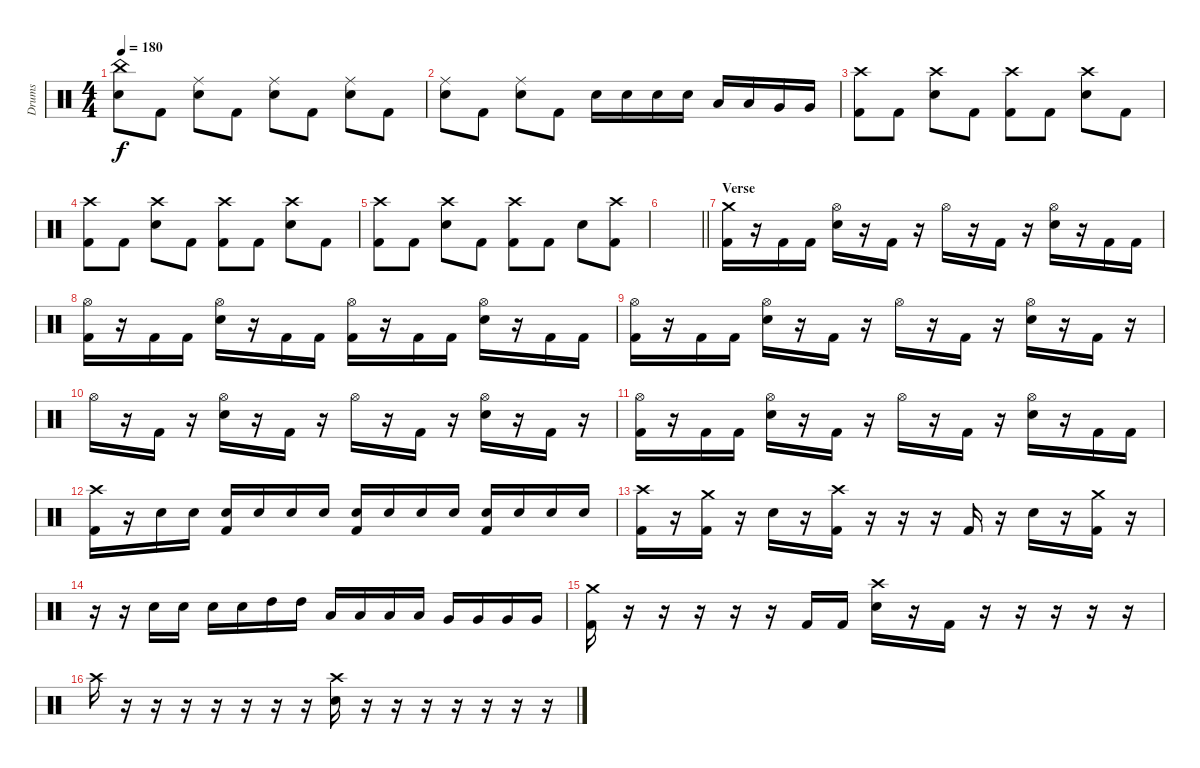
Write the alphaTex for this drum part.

\track ("Drums" "Drums") {instrument percussion}
\staff {score}
\articulation defaults
\ts (4 4)
\tempo 180
\clef neutral
\ks c
("China (hit)" "Electric Snare (hit)").8{dy f} "Kick (hit) 2".8 ("Ride (middle)" "Electric Snare (hit)").8 "Kick (hit) 2".8 ("Ride (middle)" "Electric Snare (hit)").8 "Kick (hit) 2".8 ("Ride (middle)" "Electric Snare (hit)").8 "Kick (hit) 2".8 |
("Ride (middle)" "Electric Snare (hit)").8 "Kick (hit) 2".8 ("Ride (middle)" "Electric Snare (hit)").8 "Kick (hit) 2".8 "Electric Snare (hit)".16 "Electric Snare (hit)".16 "Electric Snare (hit)".16 "Electric Snare (hit)".16 "Low Tom (hit)".16 "Low Tom (hit)".16 "Very Low Tom (hit)".16 "Very Low Tom (hit)".16 |
("Kick (hit) 2" "Crash high (hit)").8 "Kick (hit) 2".8 ("Electric Snare (hit)" "Crash high (hit)").8 "Kick (hit) 2".8 ("Kick (hit) 2" "Crash high (hit)").8 "Kick (hit) 2".8 ("Electric Snare (hit)" "Crash high (hit)").8 "Kick (hit) 2".8 |
("Kick (hit) 2" "Crash high (hit)").8 "Kick (hit) 2".8 ("Electric Snare (hit)" "Crash high (hit)").8 "Kick (hit) 2".8 ("Kick (hit) 2" "Crash high (hit)").8 "Kick (hit) 2".8 ("Electric Snare (hit)" "Crash high (hit)").8 "Kick (hit) 2".8 |
("Kick (hit) 2" "Crash high (hit)").8 "Kick (hit) 2".8 ("Electric Snare (hit)" "Crash high (hit)").8 "Kick (hit) 2".8 ("Kick (hit) 2" "Crash high (hit)").8 "Kick (hit) 2".8 "Electric Snare (hit)".8 ("Kick (hit) 2" "Crash high (hit)").8 |
\barLineRight lightlight
|
\section ("" "Verse")
("Crash medium (hit)" "Kick (hit) 2").16 r.16 "Kick (hit) 2".16 "Kick (hit) 2".16 ("Hi-Hat (open)" "Electric Snare (hit)").16 r.16 "Kick (hit) 2".16 r.16 "Hi-Hat (open)".16 r.16 "Kick (hit) 2".16 r.16 ("Hi-Hat (open)" "Electric Snare (hit)").16 r.16 "Kick (hit) 2".16 "Kick (hit) 2".16 |
("Hi-Hat (open)" "Kick (hit) 2").16 r.16 "Kick (hit) 2".16 "Kick (hit) 2".16 ("Hi-Hat (open)" "Electric Snare (hit)").16 r.16 "Kick (hit) 2".16 "Kick (hit) 2".16 ("Hi-Hat (open)" "Kick (hit) 2").16 r.16 "Kick (hit) 2".16 "Kick (hit) 2".16 ("Hi-Hat (open)" "Electric Snare (hit)").16 r.16 "Kick (hit) 2".16 "Kick (hit) 2".16 |
("Hi-Hat (open)" "Kick (hit) 2").16 r.16 "Kick (hit) 2".16 "Kick (hit) 2".16 ("Hi-Hat (open)" "Electric Snare (hit)").16 r.16 "Kick (hit) 2".16 r.16 "Hi-Hat (open)".16 r.16 "Kick (hit) 2".16 r.16 ("Hi-Hat (open)" "Electric Snare (hit)").16 r.16 "Kick (hit) 2".16 r.16 |
"Hi-Hat (open)".16 r.16 "Kick (hit) 2".16 r.16 ("Hi-Hat (open)" "Electric Snare (hit)").16 r.16 "Kick (hit) 2".16 r.16 "Hi-Hat (open)".16 r.16 "Kick (hit) 2".16 r.16 ("Hi-Hat (open)" "Electric Snare (hit)").16 r.16 "Kick (hit) 2".16 r.16 |
("Hi-Hat (open)" "Kick (hit) 2").16 r.16 "Kick (hit) 2".16 "Kick (hit) 2".16 ("Hi-Hat (open)" "Electric Snare (hit)").16 r.16 "Kick (hit) 2".16 r.16 "Hi-Hat (open)".16 r.16 "Kick (hit) 2".16 r.16 ("Hi-Hat (open)" "Electric Snare (hit)").16 r.16 "Kick (hit) 2".16 "Kick (hit) 2".16 |
("Crash high (hit)" "Kick (hit) 2").16 r.16 "Electric Snare (hit)".16 "Electric Snare (hit)".16 ("Electric Snare (hit)" "Kick (hit) 2").16 "Electric Snare (hit)".16 "Electric Snare (hit)".16 "Electric Snare (hit)".16 ("Electric Snare (hit)" "Kick (hit) 2").16 "Electric Snare (hit)".16 "Electric Snare (hit)".16 "Electric Snare (hit)".16 ("Electric Snare (hit)" "Kick (hit) 2").16 "Electric Snare (hit)".16 "Electric Snare (hit)".16 "Electric Snare (hit)".16 |
("Crash high (hit)" "Kick (hit) 2").16 r.16 ("Crash medium (hit)" "Kick (hit) 2").16 r.16 "Electric Snare (hit)".16 r.16 ("Crash high (hit)" "Kick (hit) 2").16 r.16 r.16 r.16 "Kick (hit) 2".16 r.16 "Electric Snare (hit)".16 r.16 ("Crash medium (hit)" "Kick (hit) 2").16 r.16 |
r.16 r.16 "Electric Snare (hit)".16 "Electric Snare (hit)".16 "Electric Snare (hit)".16 "Electric Snare (hit)".16 "High Tom (hit)".16 "High Tom (hit)".16 "Low Tom (hit)".16 "Low Tom (hit)".16 "Low Tom (hit)".16 "Low Tom (hit)".16 "Very Low Tom (hit)".16 "Very Low Tom (hit)".16 "Very Low Tom (hit)".16 "Very Low Tom (hit)".16 |
("Crash medium (hit)" "Kick (hit) 2").16 r.16 r.16 r.16 r.16 r.16 "Kick (hit) 2".16 "Kick (hit) 2".16 ("Crash high (hit)" "Electric Snare (hit)").16 r.16 "Kick (hit) 2".16 r.16 r.16 r.16 r.16 r.16 |
"Crash high (hit)".16 r.16 r.16 r.16 r.16 r.16 r.16 r.16 ("Crash high (hit)" "Electric Snare (hit)").16 r.16 r.16 r.16 r.16 r.16 r.16 r.16
